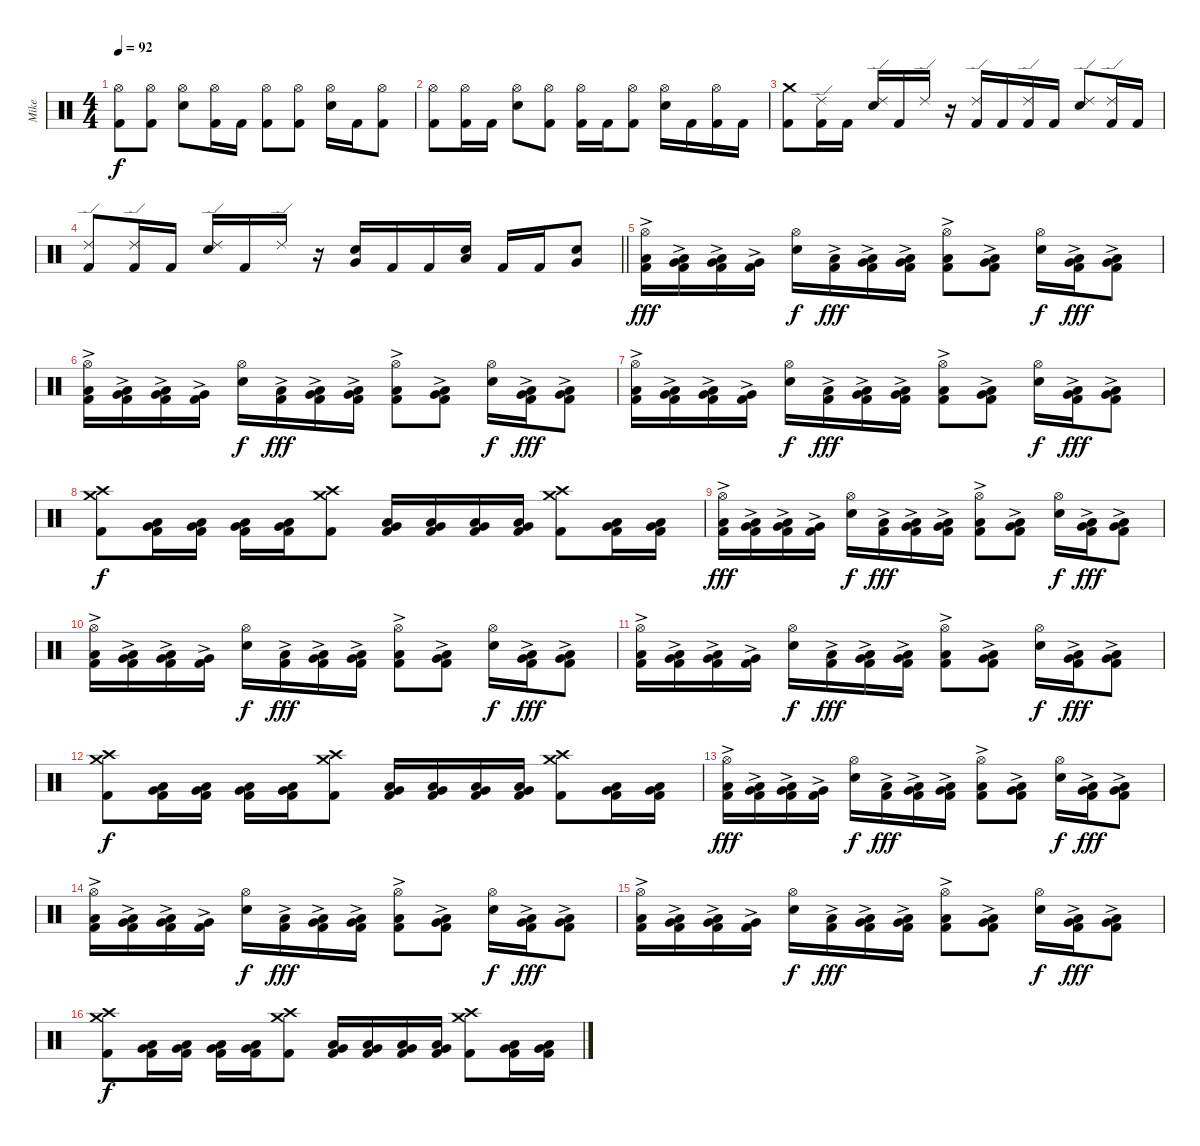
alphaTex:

\track ("Mike" "Mike") {instrument percussion}
\staff {score}
\articulation defaults
\ts (4 4)
\tempo 92
\clef neutral
\ks c
("Hi-Hat (open)" "Kick (hit) 2").8{dy f} ("Hi-Hat (open)" "Kick (hit) 2").8 ("Hi-Hat (open)" "Snare (hit) 2").8 ("Hi-Hat (open)" "Kick (hit) 2").16 "Kick (hit) 2".16 ("Hi-Hat (open)" "Kick (hit) 2").8 ("Hi-Hat (open)" "Kick (hit) 2").8 ("Hi-Hat (open)" "Snare (hit) 2").16 "Kick (hit) 2".16 ("Hi-Hat (open)" "Kick (hit) 2").8 |
("Hi-Hat (open)" "Kick (hit) 2").8 ("Hi-Hat (open)" "Kick (hit) 2").16 "Kick (hit) 2".16 ("Hi-Hat (open)" "Snare (hit) 2").8 ("Hi-Hat (open)" "Kick (hit) 2").8 ("Hi-Hat (open)" "Kick (hit) 2").16 "Kick (hit) 2".16 ("Hi-Hat (open)" "Kick (hit) 2").8 ("Hi-Hat (open)" "Snare (hit) 2").16 "Kick (hit) 2".16 ("Hi-Hat (open)" "Kick (hit) 2").16 "Kick (hit) 2".16 |
("Crash medium (hit)" "Kick (hit) 2").8 ("Ride (edge) 2" "Kick (hit) 2").16 "Kick (hit) 2".16 ("Ride (edge) 2" "Snare (hit) 2").16 "Kick (hit) 2".16 "Ride (edge) 2".16 r.16 ("Ride (edge) 2" "Kick (hit) 2").16 "Kick (hit) 2".16 ("Ride (edge) 2" "Kick (hit) 2").16 "Kick (hit) 2".16 ("Ride (edge) 2" "Snare (hit) 2").8 ("Ride (edge) 2" "Kick (hit) 2").16 "Kick (hit) 2".16 |
\barLineRight lightlight
("Ride (edge) 2" "Kick (hit) 2").8 ("Ride (edge) 2" "Kick (hit) 2").16 "Kick (hit) 2".16 ("Ride (edge) 2" "Snare (hit) 2").16 "Kick (hit) 2".16 "Ride (edge) 2".16 r.16 ("Very Low Tom (hit)" "Snare (hit) 2").16 "Kick (hit) 2".16 "Kick (hit) 2".16 ("Low Tom (hit)" "Snare (hit) 2").16 "Kick (hit) 2".16 "Kick (hit) 2".16 ("Very Low Tom (hit)" "Snare (hit) 2").8 |
("Hi-Hat (open)" "Low Tom (hit)"{ac} "Kick (hit) 2").16{dy fff} ("Low Tom (hit)"{ac} "Very Low Tom (hit)"{ac} "Kick (hit) 2").16 ("Very Low Tom (hit)"{ac} "Low Floor Tom (hit)"{ac} "Kick (hit) 2").16 ("Very Low Tom (hit)"{ac} "Kick (hit) 2").16 ("Hi-Hat (open)" "Snare (hit) 2").16{dy f} ("Low Tom (hit)"{ac} "Kick (hit) 2").16{dy fff} ("Low Tom (hit)"{ac} "Very Low Tom (hit)"{ac} "Kick (hit) 2").16 ("Very Low Tom (hit)"{ac} "Low Floor Tom (hit)"{ac} "Kick (hit) 2").16 ("Hi-Hat (open)" "Low Floor Tom (hit)"{ac} "Kick (hit) 2").8 ("Very Low Tom (hit)"{ac} "Low Floor Tom (hit)"{ac} "Kick (hit) 2").8 ("Hi-Hat (open)" "Snare (hit) 2").16{dy f} ("Very Low Tom (hit)"{ac} "Low Floor Tom (hit)"{ac} "Kick (hit) 2").16{dy fff} ("Very Low Tom (hit)"{ac} "Low Tom (hit)"{ac} "Kick (hit) 2").8 |
("Hi-Hat (open)" "Low Tom (hit)"{ac} "Kick (hit) 2").16 ("Low Tom (hit)"{ac} "Very Low Tom (hit)"{ac} "Kick (hit) 2").16 ("Very Low Tom (hit)"{ac} "Low Floor Tom (hit)"{ac} "Kick (hit) 2").16 ("Very Low Tom (hit)"{ac} "Kick (hit) 2").16 ("Hi-Hat (open)" "Snare (hit) 2").16{dy f} ("Low Tom (hit)"{ac} "Kick (hit) 2").16{dy fff} ("Low Tom (hit)"{ac} "Very Low Tom (hit)"{ac} "Kick (hit) 2").16 ("Very Low Tom (hit)"{ac} "Low Floor Tom (hit)"{ac} "Kick (hit) 2").16 ("Hi-Hat (open)" "Low Floor Tom (hit)"{ac} "Kick (hit) 2").8 ("Very Low Tom (hit)"{ac} "Low Floor Tom (hit)"{ac} "Kick (hit) 2").8 ("Hi-Hat (open)" "Snare (hit) 2").16{dy f} ("Very Low Tom (hit)"{ac} "Low Floor Tom (hit)"{ac} "Kick (hit) 2").16{dy fff} ("Very Low Tom (hit)"{ac} "Low Tom (hit)"{ac} "Kick (hit) 2").8 |
("Hi-Hat (open)" "Low Tom (hit)"{ac} "Kick (hit) 2").16 ("Low Tom (hit)"{ac} "Very Low Tom (hit)"{ac} "Kick (hit) 2").16 ("Very Low Tom (hit)"{ac} "Low Floor Tom (hit)"{ac} "Kick (hit) 2").16 ("Very Low Tom (hit)"{ac} "Kick (hit) 2").16 ("Hi-Hat (open)" "Snare (hit) 2").16{dy f} ("Low Tom (hit)"{ac} "Kick (hit) 2").16{dy fff} ("Low Tom (hit)"{ac} "Very Low Tom (hit)"{ac} "Kick (hit) 2").16 ("Very Low Tom (hit)"{ac} "Low Floor Tom (hit)"{ac} "Kick (hit) 2").16 ("Hi-Hat (open)" "Low Floor Tom (hit)"{ac} "Kick (hit) 2").8 ("Very Low Tom (hit)"{ac} "Low Floor Tom (hit)"{ac} "Kick (hit) 2").8 ("Hi-Hat (open)" "Snare (hit) 2").16{dy f} ("Very Low Tom (hit)"{ac} "Low Floor Tom (hit)"{ac} "Kick (hit) 2").16{dy fff} ("Very Low Tom (hit)"{ac} "Low Tom (hit)"{ac} "Kick (hit) 2").8 |
("Crash medium (hit)" "Crash high (hit)" "Kick (hit) 2").8{dy f} ("Low Tom (hit)" "Very Low Tom (hit)" "Kick (hit) 2").16 ("Low Tom (hit)" "Very Low Tom (hit)" "Kick (hit) 2").16 ("Low Tom (hit)" "Very Low Tom (hit)" "Kick (hit) 2").16 ("Low Tom (hit)" "Very Low Tom (hit)" "Kick (hit) 2").16 ("Crash medium (hit)" "Crash high (hit)" "Kick (hit) 2").8 ("Low Tom (hit)" "Very Low Tom (hit)" "Kick (hit) 2").16 ("Low Tom (hit)" "Very Low Tom (hit)" "Kick (hit) 2").16 ("Low Tom (hit)" "Very Low Tom (hit)" "Kick (hit) 2").16 ("Low Tom (hit)" "Very Low Tom (hit)" "Kick (hit) 2").16 ("Crash medium (hit)" "Crash high (hit)" "Kick (hit) 2").8 ("Low Tom (hit)" "Very Low Tom (hit)" "Kick (hit) 2").16 ("Low Tom (hit)" "Very Low Tom (hit)" "Kick (hit) 2").16 |
("Hi-Hat (open)" "Low Tom (hit)"{ac} "Kick (hit) 2").16{dy fff} ("Low Tom (hit)"{ac} "Very Low Tom (hit)"{ac} "Kick (hit) 2").16 ("Very Low Tom (hit)"{ac} "Low Floor Tom (hit)"{ac} "Kick (hit) 2").16 ("Very Low Tom (hit)"{ac} "Kick (hit) 2").16 ("Hi-Hat (open)" "Snare (hit) 2").16{dy f} ("Low Tom (hit)"{ac} "Kick (hit) 2").16{dy fff} ("Low Tom (hit)"{ac} "Very Low Tom (hit)"{ac} "Kick (hit) 2").16 ("Very Low Tom (hit)"{ac} "Low Floor Tom (hit)"{ac} "Kick (hit) 2").16 ("Hi-Hat (open)" "Low Floor Tom (hit)"{ac} "Kick (hit) 2").8 ("Very Low Tom (hit)"{ac} "Low Floor Tom (hit)"{ac} "Kick (hit) 2").8 ("Hi-Hat (open)" "Snare (hit) 2").16{dy f} ("Very Low Tom (hit)"{ac} "Low Floor Tom (hit)"{ac} "Kick (hit) 2").16{dy fff} ("Very Low Tom (hit)"{ac} "Low Tom (hit)"{ac} "Kick (hit) 2").8 |
("Hi-Hat (open)" "Low Tom (hit)"{ac} "Kick (hit) 2").16 ("Low Tom (hit)"{ac} "Very Low Tom (hit)"{ac} "Kick (hit) 2").16 ("Very Low Tom (hit)"{ac} "Low Floor Tom (hit)"{ac} "Kick (hit) 2").16 ("Very Low Tom (hit)"{ac} "Kick (hit) 2").16 ("Hi-Hat (open)" "Snare (hit) 2").16{dy f} ("Low Tom (hit)"{ac} "Kick (hit) 2").16{dy fff} ("Low Tom (hit)"{ac} "Very Low Tom (hit)"{ac} "Kick (hit) 2").16 ("Very Low Tom (hit)"{ac} "Low Floor Tom (hit)"{ac} "Kick (hit) 2").16 ("Hi-Hat (open)" "Low Floor Tom (hit)"{ac} "Kick (hit) 2").8 ("Very Low Tom (hit)"{ac} "Low Floor Tom (hit)"{ac} "Kick (hit) 2").8 ("Hi-Hat (open)" "Snare (hit) 2").16{dy f} ("Very Low Tom (hit)"{ac} "Low Floor Tom (hit)"{ac} "Kick (hit) 2").16{dy fff} ("Very Low Tom (hit)"{ac} "Low Tom (hit)"{ac} "Kick (hit) 2").8 |
("Hi-Hat (open)" "Low Tom (hit)"{ac} "Kick (hit) 2").16 ("Low Tom (hit)"{ac} "Very Low Tom (hit)"{ac} "Kick (hit) 2").16 ("Very Low Tom (hit)"{ac} "Low Floor Tom (hit)"{ac} "Kick (hit) 2").16 ("Very Low Tom (hit)"{ac} "Kick (hit) 2").16 ("Hi-Hat (open)" "Snare (hit) 2").16{dy f} ("Low Tom (hit)"{ac} "Kick (hit) 2").16{dy fff} ("Low Tom (hit)"{ac} "Very Low Tom (hit)"{ac} "Kick (hit) 2").16 ("Very Low Tom (hit)"{ac} "Low Floor Tom (hit)"{ac} "Kick (hit) 2").16 ("Hi-Hat (open)" "Low Floor Tom (hit)"{ac} "Kick (hit) 2").8 ("Very Low Tom (hit)"{ac} "Low Floor Tom (hit)"{ac} "Kick (hit) 2").8 ("Hi-Hat (open)" "Snare (hit) 2").16{dy f} ("Very Low Tom (hit)"{ac} "Low Floor Tom (hit)"{ac} "Kick (hit) 2").16{dy fff} ("Very Low Tom (hit)"{ac} "Low Tom (hit)"{ac} "Kick (hit) 2").8 |
("Crash medium (hit)" "Crash high (hit)" "Kick (hit) 2").8{dy f} ("Low Tom (hit)" "Very Low Tom (hit)" "Kick (hit) 2").16 ("Low Tom (hit)" "Very Low Tom (hit)" "Kick (hit) 2").16 ("Low Tom (hit)" "Very Low Tom (hit)" "Kick (hit) 2").16 ("Low Tom (hit)" "Very Low Tom (hit)" "Kick (hit) 2").16 ("Crash medium (hit)" "Crash high (hit)" "Kick (hit) 2").8 ("Low Tom (hit)" "Very Low Tom (hit)" "Kick (hit) 2").16 ("Low Tom (hit)" "Very Low Tom (hit)" "Kick (hit) 2").16 ("Low Tom (hit)" "Very Low Tom (hit)" "Kick (hit) 2").16 ("Low Tom (hit)" "Very Low Tom (hit)" "Kick (hit) 2").16 ("Crash medium (hit)" "Crash high (hit)" "Kick (hit) 2").8 ("Low Tom (hit)" "Very Low Tom (hit)" "Kick (hit) 2").16 ("Low Tom (hit)" "Very Low Tom (hit)" "Kick (hit) 2").16 |
("Hi-Hat (open)" "Low Tom (hit)"{ac} "Kick (hit) 2").16{dy fff} ("Low Tom (hit)"{ac} "Very Low Tom (hit)"{ac} "Kick (hit) 2").16 ("Very Low Tom (hit)"{ac} "Low Floor Tom (hit)"{ac} "Kick (hit) 2").16 ("Very Low Tom (hit)"{ac} "Kick (hit) 2").16 ("Hi-Hat (open)" "Snare (hit) 2").16{dy f} ("Low Tom (hit)"{ac} "Kick (hit) 2").16{dy fff} ("Low Tom (hit)"{ac} "Very Low Tom (hit)"{ac} "Kick (hit) 2").16 ("Very Low Tom (hit)"{ac} "Low Floor Tom (hit)"{ac} "Kick (hit) 2").16 ("Hi-Hat (open)" "Low Floor Tom (hit)"{ac} "Kick (hit) 2").8 ("Very Low Tom (hit)"{ac} "Low Floor Tom (hit)"{ac} "Kick (hit) 2").8 ("Hi-Hat (open)" "Snare (hit) 2").16{dy f} ("Very Low Tom (hit)"{ac} "Low Floor Tom (hit)"{ac} "Kick (hit) 2").16{dy fff} ("Very Low Tom (hit)"{ac} "Low Tom (hit)"{ac} "Kick (hit) 2").8 |
("Hi-Hat (open)" "Low Tom (hit)"{ac} "Kick (hit) 2").16 ("Low Tom (hit)"{ac} "Very Low Tom (hit)"{ac} "Kick (hit) 2").16 ("Very Low Tom (hit)"{ac} "Low Floor Tom (hit)"{ac} "Kick (hit) 2").16 ("Very Low Tom (hit)"{ac} "Kick (hit) 2").16 ("Hi-Hat (open)" "Snare (hit) 2").16{dy f} ("Low Tom (hit)"{ac} "Kick (hit) 2").16{dy fff} ("Low Tom (hit)"{ac} "Very Low Tom (hit)"{ac} "Kick (hit) 2").16 ("Very Low Tom (hit)"{ac} "Low Floor Tom (hit)"{ac} "Kick (hit) 2").16 ("Hi-Hat (open)" "Low Floor Tom (hit)"{ac} "Kick (hit) 2").8 ("Very Low Tom (hit)"{ac} "Low Floor Tom (hit)"{ac} "Kick (hit) 2").8 ("Hi-Hat (open)" "Snare (hit) 2").16{dy f} ("Very Low Tom (hit)"{ac} "Low Floor Tom (hit)"{ac} "Kick (hit) 2").16{dy fff} ("Very Low Tom (hit)"{ac} "Low Tom (hit)"{ac} "Kick (hit) 2").8 |
("Hi-Hat (open)" "Low Tom (hit)"{ac} "Kick (hit) 2").16 ("Low Tom (hit)"{ac} "Very Low Tom (hit)"{ac} "Kick (hit) 2").16 ("Very Low Tom (hit)"{ac} "Low Floor Tom (hit)"{ac} "Kick (hit) 2").16 ("Very Low Tom (hit)"{ac} "Kick (hit) 2").16 ("Hi-Hat (open)" "Snare (hit) 2").16{dy f} ("Low Tom (hit)"{ac} "Kick (hit) 2").16{dy fff} ("Low Tom (hit)"{ac} "Very Low Tom (hit)"{ac} "Kick (hit) 2").16 ("Very Low Tom (hit)"{ac} "Low Floor Tom (hit)"{ac} "Kick (hit) 2").16 ("Hi-Hat (open)" "Low Floor Tom (hit)"{ac} "Kick (hit) 2").8 ("Very Low Tom (hit)"{ac} "Low Floor Tom (hit)"{ac} "Kick (hit) 2").8 ("Hi-Hat (open)" "Snare (hit) 2").16{dy f} ("Very Low Tom (hit)"{ac} "Low Floor Tom (hit)"{ac} "Kick (hit) 2").16{dy fff} ("Very Low Tom (hit)"{ac} "Low Tom (hit)"{ac} "Kick (hit) 2").8 |
("Crash medium (hit)" "Crash high (hit)" "Kick (hit) 2").8{dy f} ("Low Tom (hit)" "Very Low Tom (hit)" "Kick (hit) 2").16 ("Low Tom (hit)" "Very Low Tom (hit)" "Kick (hit) 2").16 ("Low Tom (hit)" "Very Low Tom (hit)" "Kick (hit) 2").16 ("Low Tom (hit)" "Very Low Tom (hit)" "Kick (hit) 2").16 ("Crash medium (hit)" "Crash high (hit)" "Kick (hit) 2").8 ("Low Tom (hit)" "Very Low Tom (hit)" "Kick (hit) 2").16 ("Low Tom (hit)" "Very Low Tom (hit)" "Kick (hit) 2").16 ("Low Tom (hit)" "Very Low Tom (hit)" "Kick (hit) 2").16 ("Low Tom (hit)" "Very Low Tom (hit)" "Kick (hit) 2").16 ("Crash medium (hit)" "Crash high (hit)" "Kick (hit) 2").8 ("Low Tom (hit)" "Very Low Tom (hit)" "Kick (hit) 2").16 ("Low Tom (hit)" "Very Low Tom (hit)" "Kick (hit) 2").16
